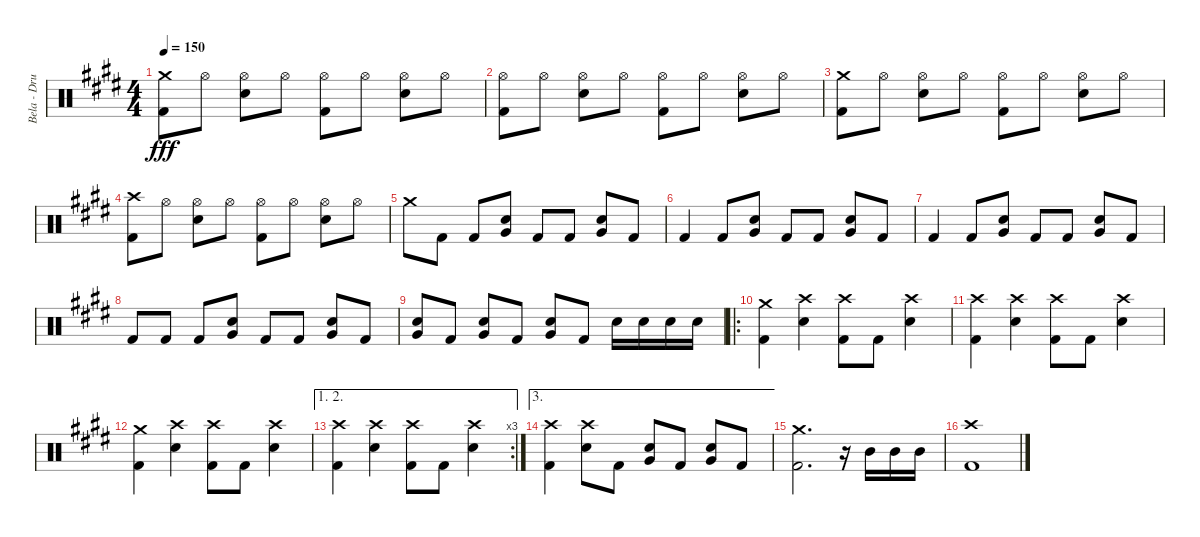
\track ("Bela - Drums" "Bela - Dru") {instrument percussion}
\staff {score}
\articulation defaults
\ts (4 4)
\tempo 150
\clef neutral
\ks e
("Crash medium (hit)" "Kick (hit) 2").8{dy fff} "Hi-Hat (open)".8 ("Hi-Hat (open)" "Electric Snare (hit)").8 "Hi-Hat (open)".8 ("Hi-Hat (open)" "Kick (hit) 2").8 "Hi-Hat (open)".8 ("Hi-Hat (open)" "Electric Snare (hit)").8 "Hi-Hat (open)".8 |
("Hi-Hat (open)" "Kick (hit) 2").8 "Hi-Hat (open)".8 ("Hi-Hat (open)" "Electric Snare (hit)").8 "Hi-Hat (open)".8 ("Hi-Hat (open)" "Kick (hit) 2").8 "Hi-Hat (open)".8 ("Hi-Hat (open)" "Electric Snare (hit)").8 "Hi-Hat (open)".8 |
("Crash medium (hit)" "Kick (hit) 2").8 "Hi-Hat (open)".8 ("Hi-Hat (open)" "Electric Snare (hit)").8 "Hi-Hat (open)".8 ("Hi-Hat (open)" "Kick (hit) 2").8 "Hi-Hat (open)".8 ("Hi-Hat (open)" "Electric Snare (hit)").8 "Hi-Hat (open)".8 |
("Crash high (hit)" "Kick (hit) 2").8 "Hi-Hat (open)".8 ("Hi-Hat (open)" "Electric Snare (hit)").8 "Hi-Hat (open)".8 ("Hi-Hat (open)" "Kick (hit) 2").8 "Hi-Hat (open)".8 ("Hi-Hat (open)" "Electric Snare (hit)").8 "Hi-Hat (open)".8 |
"Crash medium (hit)".8 "Kick (hit) 2".8 "Kick (hit) 2".8 ("Electric Snare (hit)" "Very Low Tom (hit)").8 "Kick (hit) 2".8 "Kick (hit) 2".8 ("Electric Snare (hit)" "Very Low Tom (hit)").8 "Kick (hit) 2".8 |
"Kick (hit) 2".4 "Kick (hit) 2".8 ("Electric Snare (hit)" "Very Low Tom (hit)").8 "Kick (hit) 2".8 "Kick (hit) 2".8 ("Electric Snare (hit)" "Very Low Tom (hit)").8 "Kick (hit) 2".8 |
"Kick (hit) 2".4 "Kick (hit) 2".8 ("Electric Snare (hit)" "Very Low Tom (hit)").8 "Kick (hit) 2".8 "Kick (hit) 2".8 ("Electric Snare (hit)" "Very Low Tom (hit)").8 "Kick (hit) 2".8 |
"Kick (hit) 2".8 "Kick (hit) 2".8 "Kick (hit) 2".8 ("Electric Snare (hit)" "Very Low Tom (hit)").8 "Kick (hit) 2".8 "Kick (hit) 2".8 ("Electric Snare (hit)" "Very Low Tom (hit)").8 "Kick (hit) 2".8 |
("Electric Snare (hit)" "Very Low Tom (hit)").8 "Kick (hit) 2".8 ("Electric Snare (hit)" "Very Low Tom (hit)").8 "Kick (hit) 2".8 ("Electric Snare (hit)" "Very Low Tom (hit)").8 "Kick (hit) 2".8 "Electric Snare (hit)".16 "Electric Snare (hit)".16 "Electric Snare (hit)".16 "Electric Snare (hit)".16 |
\ro
("Crash medium (hit)" "Kick (hit) 2").4 ("Crash high (hit)" "Electric Snare (hit)").4 ("Crash high (hit)" "Kick (hit) 2").8 "Kick (hit) 2".8 ("Crash high (hit)" "Electric Snare (hit)").4 |
("Crash high (hit)" "Kick (hit) 2").4 ("Crash high (hit)" "Electric Snare (hit)").4 ("Crash high (hit)" "Kick (hit) 2").8 "Kick (hit) 2".8 ("Crash high (hit)" "Electric Snare (hit)").4 |
("Crash medium (hit)" "Kick (hit) 2").4 ("Crash high (hit)" "Electric Snare (hit)").4 ("Crash high (hit)" "Kick (hit) 2").8 "Kick (hit) 2".8 ("Crash high (hit)" "Electric Snare (hit)").4 |
\ae (1 2)
\rc 3
("Crash high (hit)" "Kick (hit) 2").4 ("Crash high (hit)" "Electric Snare (hit)").4 ("Crash high (hit)" "Kick (hit) 2").8 "Kick (hit) 2".8 ("Crash high (hit)" "Electric Snare (hit)").4 |
\ae 3
("Crash high (hit)" "Kick (hit) 2").4 ("Crash high (hit)" "Electric Snare (hit)").8 "Kick (hit) 2".8 ("Electric Snare (hit)" "Very Low Tom (hit)").8 "Kick (hit) 2".8 ("Electric Snare (hit)" "Very Low Tom (hit)").8 "Kick (hit) 2".8 |
("Crash medium (hit)" "Kick (hit) 2").2{d} r.16 "Mid Tom (hit)".16 "Mid Tom (hit)".16 "Mid Tom (hit)".16 |
("Crash high (hit)" "Kick (hit) 2").1
